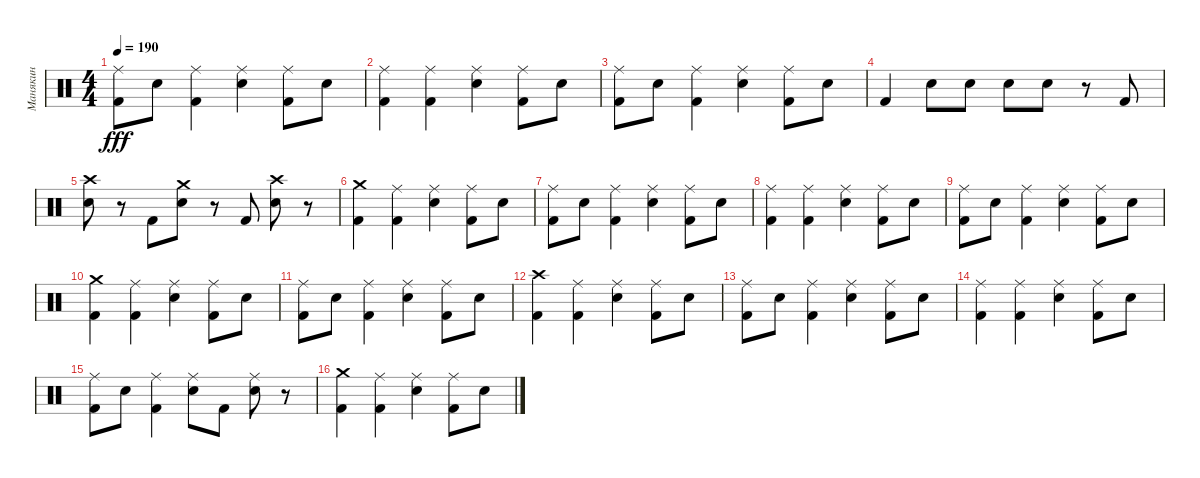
\track ("Манякин" "Манякин") {instrument percussion}
\staff {score}
\articulation defaults
\ts (4 4)
\tempo 190
\clef neutral
\ks c
("Kick (hit) 2" "Ride (middle)").8{dy fff} "Snare (hit) 2".8 ("Kick (hit) 2" "Ride (middle)").4 ("Snare (hit) 2" "Ride (middle)").4 ("Kick (hit) 2" "Ride (middle)").8 "Snare (hit) 2".8 |
("Kick (hit) 2" "Ride (middle)").4 ("Kick (hit) 2" "Ride (middle)").4 ("Snare (hit) 2" "Ride (middle)").4 ("Kick (hit) 2" "Ride (middle)").8 "Snare (hit) 2".8 |
("Kick (hit) 2" "Ride (middle)").8 "Snare (hit) 2".8 ("Kick (hit) 2" "Ride (middle)").4 ("Snare (hit) 2" "Ride (middle)").4 ("Kick (hit) 2" "Ride (middle)").8 "Snare (hit) 2".8 |
"Kick (hit) 2".4 "Snare (hit) 2".8 "Snare (hit) 2".8 "Snare (hit) 2".8 "Snare (hit) 2".8 r.8 "Kick (hit) 2".8 |
("Snare (hit) 2" "Crash high (hit)").8 r.8 "Kick (hit) 2".8 ("Crash medium (hit)" "Snare (hit) 2").8 r.8 "Kick (hit) 2".8 ("Crash high (hit)" "Snare (hit) 2").8 r.8 |
("Kick (hit) 2" "Crash medium (hit)").4 ("Kick (hit) 2" "Ride (middle)").4 ("Snare (hit) 2" "Ride (middle)").4 ("Kick (hit) 2" "Ride (middle)").8 "Snare (hit) 2".8 |
("Kick (hit) 2" "Ride (middle)").8 "Snare (hit) 2".8 ("Kick (hit) 2" "Ride (middle)").4 ("Snare (hit) 2" "Ride (middle)").4 ("Kick (hit) 2" "Ride (middle)").8 "Snare (hit) 2".8 |
("Kick (hit) 2" "Ride (middle)").4 ("Kick (hit) 2" "Ride (middle)").4 ("Snare (hit) 2" "Ride (middle)").4 ("Kick (hit) 2" "Ride (middle)").8 "Snare (hit) 2".8 |
("Kick (hit) 2" "Ride (middle)").8 "Snare (hit) 2".8 ("Kick (hit) 2" "Ride (middle)").4 ("Snare (hit) 2" "Ride (middle)").4 ("Kick (hit) 2" "Ride (middle)").8 "Snare (hit) 2".8 |
("Kick (hit) 2" "Crash medium (hit)").4 ("Kick (hit) 2" "Ride (middle)").4 ("Snare (hit) 2" "Ride (middle)").4 ("Kick (hit) 2" "Ride (middle)").8 "Snare (hit) 2".8 |
("Kick (hit) 2" "Ride (middle)").8 "Snare (hit) 2".8 ("Kick (hit) 2" "Ride (middle)").4 ("Snare (hit) 2" "Ride (middle)").4 ("Kick (hit) 2" "Ride (middle)").8 "Snare (hit) 2".8 |
("Kick (hit) 2" "Crash high (hit)").4 ("Kick (hit) 2" "Ride (middle)").4 ("Snare (hit) 2" "Ride (middle)").4 ("Kick (hit) 2" "Ride (middle)").8 "Snare (hit) 2".8 |
("Kick (hit) 2" "Ride (middle)").8 "Snare (hit) 2".8 ("Kick (hit) 2" "Ride (middle)").4 ("Snare (hit) 2" "Ride (middle)").4 ("Kick (hit) 2" "Ride (middle)").8 "Snare (hit) 2".8 |
("Kick (hit) 2" "Ride (middle)").4 ("Kick (hit) 2" "Ride (middle)").4 ("Snare (hit) 2" "Ride (middle)").4 ("Kick (hit) 2" "Ride (middle)").8 "Snare (hit) 2".8 |
("Kick (hit) 2" "Ride (middle)").8 "Snare (hit) 2".8 ("Kick (hit) 2" "Ride (middle)").4 ("Snare (hit) 2" "Ride (middle)").8 "Kick (hit) 2".8 ("Snare (hit) 2" "Ride (middle)").8 r.8 |
("Kick (hit) 2" "Crash medium (hit)").4 ("Kick (hit) 2" "Ride (middle)").4 ("Snare (hit) 2" "Ride (middle)").4 ("Kick (hit) 2" "Ride (middle)").8 "Snare (hit) 2".8
